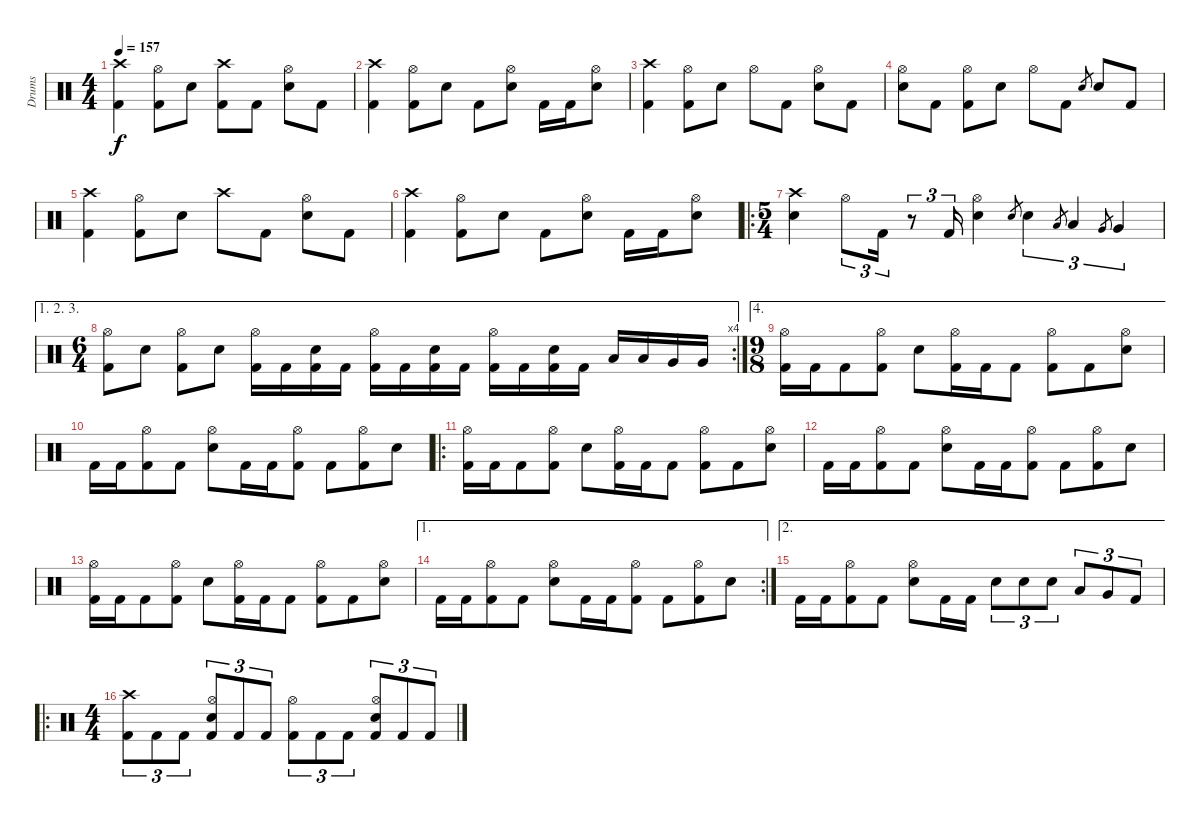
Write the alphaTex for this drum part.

\track ("Drums" "Drums") {instrument percussion}
\staff {score}
\articulation defaults
\ts (4 4)
\tempo 157
\clef neutral
\ks c
("Crash high (hit)" "Kick (hit) 2").4{dy f} ("Hi-Hat (open)" "Kick (hit) 2").8 "Electric Snare (hit)".8 ("Crash high (hit)" "Kick (hit) 2").8 "Kick (hit) 2".8 ("Hi-Hat (open)" "Electric Snare (hit)").8 "Kick (hit) 2".8 |
("Crash high (hit)" "Kick (hit) 2").4 ("Hi-Hat (open)" "Kick (hit) 2").8 "Electric Snare (hit)".8 "Kick (hit) 2".8 ("Hi-Hat (open)" "Electric Snare (hit)").8 "Kick (hit) 2".16 "Kick (hit) 2".16 ("Hi-Hat (open)" "Electric Snare (hit)").8 |
("Crash high (hit)" "Kick (hit) 2").4 ("Hi-Hat (open)" "Kick (hit) 2").8 "Electric Snare (hit)".8 "Hi-Hat (open)".8 "Kick (hit) 2".8 ("Hi-Hat (open)" "Electric Snare (hit)").8 "Kick (hit) 2".8 |
("Hi-Hat (open)" "Electric Snare (hit)").8 "Kick (hit) 2".8 ("Hi-Hat (open)" "Kick (hit) 2").8 "Electric Snare (hit)".8 "Hi-Hat (open)".8 "Kick (hit) 2".8 "Electric Snare (hit)".8{gr} "Electric Snare (hit)".8 "Kick (hit) 2".8 |
("Crash high (hit)" "Kick (hit) 2").4 ("Hi-Hat (open)" "Kick (hit) 2").8 "Electric Snare (hit)".8 "Crash high (hit)".8 "Kick (hit) 2".8 ("Hi-Hat (open)" "Electric Snare (hit)").8 "Kick (hit) 2".8 |
("Crash high (hit)" "Kick (hit) 2").4 ("Hi-Hat (open)" "Kick (hit) 2").8 "Electric Snare (hit)".8 "Kick (hit) 2".8 ("Hi-Hat (open)" "Electric Snare (hit)").8 "Kick (hit) 2".16 "Kick (hit) 2".16 ("Hi-Hat (open)" "Electric Snare (hit)").8 |
\ro
\ts (5 4)
("Crash high (hit)" "Electric Snare (hit)").4 "Hi-Hat (open)".8{tu (3 2)} "Kick (hit) 2".16{tu (3 2)} r.8{tu (3 2)} "Kick (hit) 2".16{tu (3 2)} ("Hi-Hat (open)" "Electric Snare (hit)").4 "Electric Snare (hit)".8{gr} "Electric Snare (hit)".4{tu (3 2)} "Low Tom (hit)".8{gr} "Low Tom (hit)".4{tu (3 2)} "Very Low Tom (hit)".8{gr} "Very Low Tom (hit)".4{tu (3 2)} |
\ae (1 2 3)
\rc 4
\ts (6 4)
("Hi-Hat (open)" "Kick (hit) 2").8 "Electric Snare (hit)".8 ("Hi-Hat (open)" "Kick (hit) 2").8 "Electric Snare (hit)".8 ("Hi-Hat (open)" "Kick (hit) 2").16 "Kick (hit) 2".16 ("Electric Snare (hit)" "Kick (hit) 2").16 "Kick (hit) 2".16 ("Hi-Hat (open)" "Kick (hit) 2").16 "Kick (hit) 2".16 ("Electric Snare (hit)" "Kick (hit) 2").16 "Kick (hit) 2".16 ("Hi-Hat (open)" "Kick (hit) 2").16 "Kick (hit) 2".16 ("Electric Snare (hit)" "Kick (hit) 2").16 "Kick (hit) 2".16 "Low Tom (hit)".16 "Low Tom (hit)".16 "Very Low Tom (hit)".16 "Very Low Tom (hit)".16 |
\ae 4
\ts (9 8)
("Hi-Hat (open)" "Kick (hit) 2").16 "Kick (hit) 2".16 "Kick (hit) 2".8 ("Hi-Hat (open)" "Kick (hit) 2").8 "Electric Snare (hit)".8 ("Hi-Hat (open)" "Kick (hit) 2").16 "Kick (hit) 2".16 "Kick (hit) 2".8 ("Hi-Hat (open)" "Kick (hit) 2").8 "Kick (hit) 2".8 ("Hi-Hat (open)" "Electric Snare (hit)").8 |
"Kick (hit) 2".16 "Kick (hit) 2".16 ("Hi-Hat (open)" "Kick (hit) 2").8 "Kick (hit) 2".8 ("Hi-Hat (open)" "Electric Snare (hit)").8 "Kick (hit) 2".16 "Kick (hit) 2".16 ("Hi-Hat (open)" "Kick (hit) 2").8 "Kick (hit) 2".8 ("Hi-Hat (open)" "Kick (hit) 2").8 "Electric Snare (hit)".8 |
\ro
("Hi-Hat (open)" "Kick (hit) 2").16 "Kick (hit) 2".16 "Kick (hit) 2".8 ("Hi-Hat (open)" "Kick (hit) 2").8 "Electric Snare (hit)".8 ("Hi-Hat (open)" "Kick (hit) 2").16 "Kick (hit) 2".16 "Kick (hit) 2".8 ("Hi-Hat (open)" "Kick (hit) 2").8 "Kick (hit) 2".8 ("Hi-Hat (open)" "Electric Snare (hit)").8 |
"Kick (hit) 2".16 "Kick (hit) 2".16 ("Hi-Hat (open)" "Kick (hit) 2").8 "Kick (hit) 2".8 ("Hi-Hat (open)" "Electric Snare (hit)").8 "Kick (hit) 2".16 "Kick (hit) 2".16 ("Hi-Hat (open)" "Kick (hit) 2").8 "Kick (hit) 2".8 ("Hi-Hat (open)" "Kick (hit) 2").8 "Electric Snare (hit)".8 |
("Hi-Hat (open)" "Kick (hit) 2").16 "Kick (hit) 2".16 "Kick (hit) 2".8 ("Hi-Hat (open)" "Kick (hit) 2").8 "Electric Snare (hit)".8 ("Hi-Hat (open)" "Kick (hit) 2").16 "Kick (hit) 2".16 "Kick (hit) 2".8 ("Hi-Hat (open)" "Kick (hit) 2").8 "Kick (hit) 2".8 ("Hi-Hat (open)" "Electric Snare (hit)").8 |
\ae 1
\rc 2 "Kick (hit) 2".16 "Kick (hit) 2".16
("Hi-Hat (open)" "Kick (hit) 2").8 "Kick (hit) 2".8 ("Hi-Hat (open)" "Electric Snare (hit)").8 "Kick (hit) 2".16 "Kick (hit) 2".16 ("Hi-Hat (open)" "Kick (hit) 2").8 "Kick (hit) 2".8 ("Hi-Hat (open)" "Kick (hit) 2").8 "Electric Snare (hit)".8 |
\ae 2 "Kick (hit) 2".16 "Kick (hit) 2".16
("Hi-Hat (open)" "Kick (hit) 2").8 "Kick (hit) 2".8 ("Hi-Hat (open)" "Electric Snare (hit)").8 "Kick (hit) 2".16 "Kick (hit) 2".16 "Electric Snare (hit)".8{tu (3 2)} "Electric Snare (hit)".8{tu (3 2)} "Electric Snare (hit)".8{tu (3 2)} "Low Tom (hit)".8{tu (3 2)} "Very Low Tom (hit)".8{tu (3 2)} "Kick (hit) 2".8{tu (3 2)} |
\ro
\ts (4 4)
("Crash high (hit)" "Kick (hit) 2").8{tu (3 2)} "Kick (hit) 2".8{tu (3 2)} "Kick (hit) 2".8{tu (3 2)} ("Hi-Hat (open)" "Electric Snare (hit)" "Kick (hit) 2").8{tu (3 2)} "Kick (hit) 2".8{tu (3 2)} "Kick (hit) 2".8{tu (3 2)} ("Hi-Hat (open)" "Kick (hit) 2").8{tu (3 2)} "Kick (hit) 2".8{tu (3 2)} "Kick (hit) 2".8{tu (3 2)} ("Hi-Hat (open)" "Electric Snare (hit)" "Kick (hit) 2").8{tu (3 2)} "Kick (hit) 2".8{tu (3 2)} "Kick (hit) 2".8{tu (3 2)}
